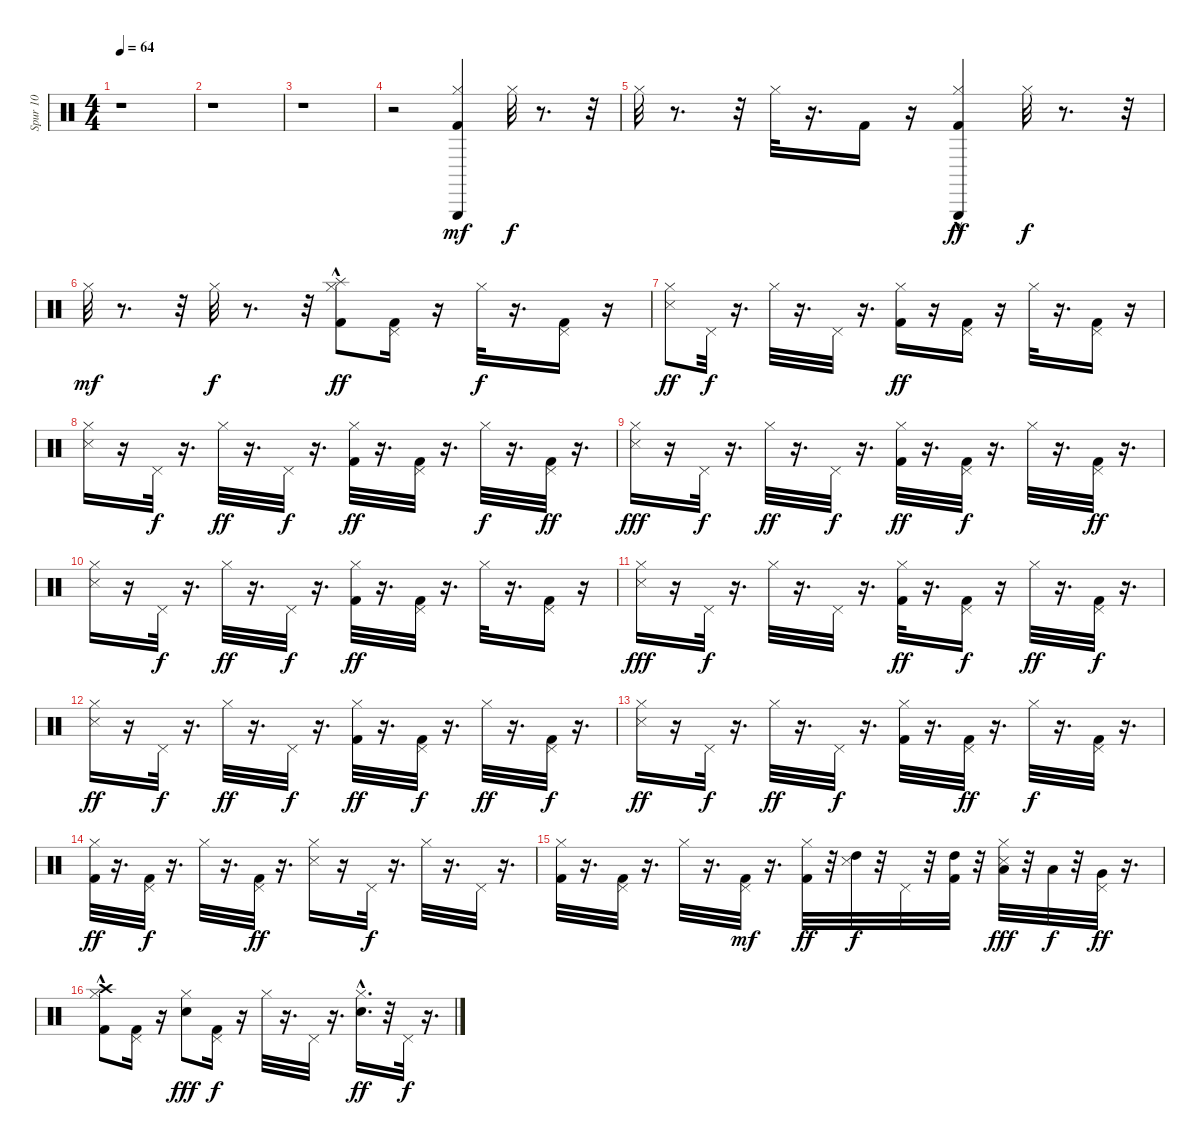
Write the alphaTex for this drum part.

\track ("Spur 10" "Spur 10") {instrument percussion}
\staff {score}
\articulation defaults
\ts (4 4)
\tempo 64
\clef neutral
\ks c
r.1{dy mf} |
r.1 |
r.1 |
r.2 ("Triangle (hit)" "Hi-Hat (closed)" "Kick (hit) 2").4 "Hi-Hat (closed)".32{dy f} r.8{d} r.32 |
"Hi-Hat (closed)".32 r.8{d} r.32 "Hi-Hat (closed)".32 r.16{d} "Kick (hit) 2".16 r.16 ("Triangle (hit)" "Hi-Hat (closed)" "Kick (hit) 2"{hac}).4{dy ff} "Hi-Hat (closed)".32{dy f} r.8{d} r.32 |
"Hi-Hat (closed)".32{dy mf} r.8{d} r.32 "Hi-Hat (closed)".32{dy f} r.8{d} r.32 ("Splash (hit)"{hac} "Hi-Hat (closed)" "Kick (hit) 2").8{dy ff} ("Pedal Hi-Hat (hit)" "Kick (hit) 2").16 r.16 "Hi-Hat (closed)".32{dy f} r.16{d} ("Pedal Hi-Hat (hit)" "Kick (hit) 2").16 r.16 |
("Hi-Hat (closed)" "Snare (side stick) 3").8{dy ff} "Pedal Hi-Hat (hit)".32{dy f} r.16{d} "Hi-Hat (closed)".32 r.16{d} "Pedal Hi-Hat (hit)".32 r.16{d} ("Hi-Hat (closed)" "Kick (hit) 2").16{dy ff} r.16 ("Pedal Hi-Hat (hit)" "Kick (hit) 2").16 r.16 "Hi-Hat (closed)".32 r.16{d} ("Pedal Hi-Hat (hit)" "Kick (hit) 2").16 r.16 |
("Hi-Hat (closed)" "Snare (side stick) 3").16 r.16 "Pedal Hi-Hat (hit)".32{dy f} r.16{d} "Hi-Hat (closed)".32{dy ff} r.16{d} "Pedal Hi-Hat (hit)".32{dy f} r.16{d} ("Hi-Hat (closed)" "Kick (hit) 2").32{dy ff} r.16{d} ("Pedal Hi-Hat (hit)" "Kick (hit) 2").32 r.16{d} "Hi-Hat (closed)".32{dy f} r.16{d} ("Pedal Hi-Hat (hit)" "Kick (hit) 2").32{dy ff} r.16{d} |
("Hi-Hat (closed)" "Snare (side stick) 3").16{dy fff} r.16 "Pedal Hi-Hat (hit)".32{dy f} r.16{d} "Hi-Hat (closed)".32{dy ff} r.16{d} "Pedal Hi-Hat (hit)".32{dy f} r.16{d} ("Hi-Hat (closed)" "Kick (hit) 2").32{dy ff} r.16{d} ("Pedal Hi-Hat (hit)" "Kick (hit) 2").32{dy f} r.16{d} "Hi-Hat (closed)".32 r.16{d} ("Pedal Hi-Hat (hit)" "Kick (hit) 2").32{dy ff} r.16{d} |
("Hi-Hat (closed)" "Snare (side stick) 3").16 r.16 "Pedal Hi-Hat (hit)".32{dy f} r.16{d} "Hi-Hat (closed)".32{dy ff} r.16{d} "Pedal Hi-Hat (hit)".32{dy f} r.16{d} ("Hi-Hat (closed)" "Kick (hit) 2").32{dy ff} r.16{d} ("Pedal Hi-Hat (hit)" "Kick (hit) 2").32 r.16{d} "Hi-Hat (closed)".32 r.16{d} ("Pedal Hi-Hat (hit)" "Kick (hit) 2").16 r.16 |
("Hi-Hat (closed)" "Snare (side stick) 3").16{dy fff} r.16 "Pedal Hi-Hat (hit)".32{dy f} r.16{d} "Hi-Hat (closed)".32 r.16{d} "Pedal Hi-Hat (hit)".32 r.16{d} ("Hi-Hat (closed)" "Kick (hit) 2").32{dy ff} r.16{d} ("Pedal Hi-Hat (hit)" "Kick (hit) 2").16{dy f} r.16 "Hi-Hat (closed)".32{dy ff} r.16{d} ("Pedal Hi-Hat (hit)" "Kick (hit) 2").32{dy f} r.16{d} |
("Hi-Hat (closed)" "Snare (side stick) 3").16{dy ff} r.16 "Pedal Hi-Hat (hit)".32{dy f} r.16{d} "Hi-Hat (closed)".32{dy ff} r.16{d} "Pedal Hi-Hat (hit)".32{dy f} r.16{d} ("Hi-Hat (closed)" "Kick (hit) 2").32{dy ff} r.16{d} ("Pedal Hi-Hat (hit)" "Kick (hit) 2").32{dy f} r.16{d} "Hi-Hat (closed)".32{dy ff} r.16{d} ("Pedal Hi-Hat (hit)" "Kick (hit) 2").32{dy f} r.16{d} |
("Hi-Hat (closed)" "Snare (side stick) 3").16{dy ff} r.16 "Pedal Hi-Hat (hit)".32{dy f} r.16{d} "Hi-Hat (closed)".32{dy ff} r.16{d} "Pedal Hi-Hat (hit)".32{dy f} r.16{d} ("Hi-Hat (closed)" "Kick (hit) 2").32 r.16{d} ("Pedal Hi-Hat (hit)" "Kick (hit) 2").32{dy ff} r.16{d} "Hi-Hat (closed)".32{dy f} r.16{d} ("Pedal Hi-Hat (hit)" "Kick (hit) 2").32 r.16{d} |
("Hi-Hat (closed)" "Kick (hit) 2").32{dy ff} r.16{d} ("Pedal Hi-Hat (hit)" "Kick (hit) 2").32{dy f} r.16{d} "Hi-Hat (closed)".32 r.16{d} ("Pedal Hi-Hat (hit)" "Kick (hit) 2").32{dy ff} r.16{d} ("Hi-Hat (closed)" "Snare (side stick) 3").16 r.16 "Pedal Hi-Hat (hit)".32{dy f} r.16{d} "Hi-Hat (closed)".32 r.16{d} "Pedal Hi-Hat (hit)".32 r.16{d} |
("Hi-Hat (closed)" "Kick (hit) 2").32 r.16{d} ("Pedal Hi-Hat (hit)" "Kick (hit) 2").32 r.16{d} "Hi-Hat (closed)".32 r.16{d} ("Pedal Hi-Hat (hit)" "Kick (hit) 2").32{dy mf} r.16{d} ("Hi-Hat (closed)" "Kick (hit) 2").32{dy ff} r.32 ("High Tom (hit)" "Snare (side stick) 3").32{dy f} r.32 "Pedal Hi-Hat (hit)".32 r.32 ("High Tom (hit)" "Kick (hit) 2").32 r.32 ("Low Tom (hit)" "Hi-Hat (closed)" "Snare (side stick) 3").32{dy fff} r.32 "Low Tom (hit)".32{dy f} r.32 ("Pedal Hi-Hat (hit)" "Very Low Tom (hit)").32{dy ff} r.16{d} |
("Crash high (hit)"{hac} "Hi-Hat (closed)" "Kick (hit) 2").8 ("Pedal Hi-Hat (hit)" "Kick (hit) 2").16 r.16 ("Hi-Hat (closed)" "Snare (hit) 2").8{dy fff} ("Pedal Hi-Hat (hit)" "Kick (hit) 2").16{dy f} r.16 "Hi-Hat (closed)".32 r.16{d} "Pedal Hi-Hat (hit)".32 r.16{d} ("Hi-Hat (closed)" "Snare (hit) 2"{hac}).16{d dy ff} r.32 "Pedal Hi-Hat (hit)".32{dy f} r.16{d}
